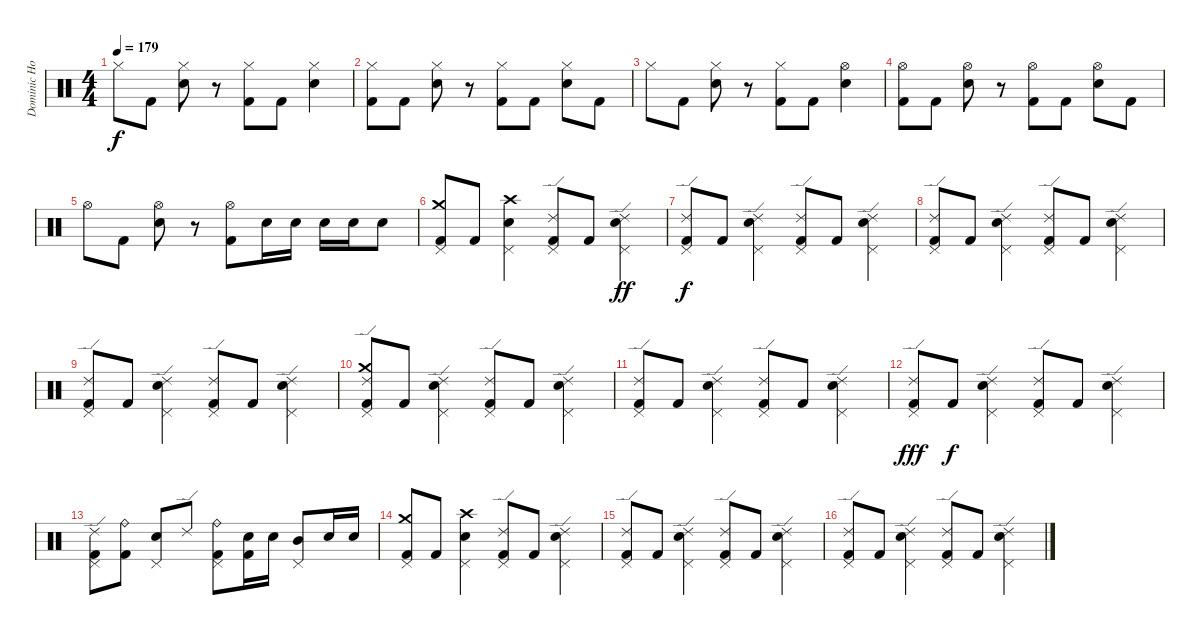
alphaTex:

\track ("Dominic Howard" "Dominic Ho") {instrument percussion}
\staff {score}
\articulation defaults
\ts (4 4)
\tempo 179
\clef neutral
\ks c "Hi-Hat (closed)".8{dy f} "Kick (hit) 2".8
("Hi-Hat (closed)" "Electric Snare (hit)").8 r.8 ("Hi-Hat (closed)" "Kick (hit) 2").8 "Kick (hit) 2".8 ("Hi-Hat (closed)" "Electric Snare (hit)").4 |
("Hi-Hat (closed)" "Kick (hit) 2").8 "Kick (hit) 2".8 ("Hi-Hat (closed)" "Electric Snare (hit)").8 r.8 ("Hi-Hat (closed)" "Kick (hit) 2").8 "Kick (hit) 2".8 ("Hi-Hat (closed)" "Electric Snare (hit)").8 "Kick (hit) 2".8 |
"Hi-Hat (closed)".8 "Kick (hit) 2".8 ("Hi-Hat (closed)" "Electric Snare (hit)").8 r.8 ("Hi-Hat (closed)" "Kick (hit) 2").8 "Kick (hit) 2".8 ("Hi-Hat (open)" "Electric Snare (hit)").4 |
("Hi-Hat (open)" "Kick (hit) 2").8 "Kick (hit) 2".8 ("Hi-Hat (open)" "Electric Snare (hit)").8 r.8 ("Hi-Hat (open)" "Kick (hit) 2").8 "Kick (hit) 2".8 ("Hi-Hat (open)" "Electric Snare (hit)").8 "Kick (hit) 2".8 |
"Hi-Hat (open)".8 "Kick (hit) 2".8 ("Hi-Hat (open)" "Electric Snare (hit)").8 r.8 ("Hi-Hat (open)" "Kick (hit) 2").8 "Electric Snare (hit)".16 "Electric Snare (hit)".16 "Electric Snare (hit)".16 "Electric Snare (hit)".16 "Electric Snare (hit)".8 |
("Crash medium (hit)" "Pedal Hi-Hat (hit)" "Kick (hit) 2").8 "Kick (hit) 2".8 ("Crash high (hit)" "Electric Snare (hit)" "Pedal Hi-Hat (hit)").4 ("Ride (edge) 2" "Pedal Hi-Hat (hit)" "Kick (hit) 2").8 "Kick (hit) 2".8 ("Ride (edge) 2" "Electric Snare (hit)" "Pedal Hi-Hat (hit)").4{dy ff} |
("Ride (edge) 2" "Pedal Hi-Hat (hit)" "Kick (hit) 2").8{dy f} "Kick (hit) 2".8 ("Ride (edge) 2" "Electric Snare (hit)" "Pedal Hi-Hat (hit)").4 ("Ride (edge) 2" "Pedal Hi-Hat (hit)" "Kick (hit) 2").8 "Kick (hit) 2".8 ("Ride (edge) 2" "Electric Snare (hit)" "Pedal Hi-Hat (hit)").4 |
("Ride (edge) 2" "Pedal Hi-Hat (hit)" "Kick (hit) 2").8 "Kick (hit) 2".8 ("Ride (edge) 2" "Electric Snare (hit)" "Pedal Hi-Hat (hit)").4 ("Ride (edge) 2" "Pedal Hi-Hat (hit)" "Kick (hit) 2").8 "Kick (hit) 2".8 ("Ride (edge) 2" "Electric Snare (hit)" "Pedal Hi-Hat (hit)").4 |
("Ride (edge) 2" "Pedal Hi-Hat (hit)" "Kick (hit) 2").8 "Kick (hit) 2".8 ("Ride (edge) 2" "Electric Snare (hit)" "Pedal Hi-Hat (hit)").4 ("Ride (edge) 2" "Pedal Hi-Hat (hit)" "Kick (hit) 2").8 "Kick (hit) 2".8 ("Ride (edge) 2" "Electric Snare (hit)" "Pedal Hi-Hat (hit)").4 |
("Crash medium (hit)" "Ride (edge) 2" "Pedal Hi-Hat (hit)" "Kick (hit) 2").8 "Kick (hit) 2".8 ("Ride (edge) 2" "Electric Snare (hit)" "Pedal Hi-Hat (hit)").4 ("Ride (edge) 2" "Pedal Hi-Hat (hit)" "Kick (hit) 2").8 "Kick (hit) 2".8 ("Ride (edge) 2" "Electric Snare (hit)" "Pedal Hi-Hat (hit)").4 |
("Ride (edge) 2" "Pedal Hi-Hat (hit)" "Kick (hit) 2").8 "Kick (hit) 2".8 ("Ride (edge) 2" "Electric Snare (hit)" "Pedal Hi-Hat (hit)").4 ("Ride (edge) 2" "Pedal Hi-Hat (hit)" "Kick (hit) 2").8 "Kick (hit) 2".8 ("Ride (edge) 2" "Electric Snare (hit)" "Pedal Hi-Hat (hit)").4 |
("Ride (edge) 2" "Pedal Hi-Hat (hit)" "Kick (hit) 2").8{dy fff} "Kick (hit) 2".8{dy f} ("Ride (edge) 2" "Electric Snare (hit)" "Pedal Hi-Hat (hit)").4 ("Ride (edge) 2" "Pedal Hi-Hat (hit)" "Kick (hit) 2").8 "Kick (hit) 2".8 ("Ride (edge) 2" "Electric Snare (hit)" "Pedal Hi-Hat (hit)").4 |
("Ride (edge) 2" "Pedal Hi-Hat (hit)" "Kick (hit) 2").8 ("Ride (bell)" "Kick (hit) 2").8 ("Electric Snare (hit)" "Pedal Hi-Hat (hit)").8 "Ride (edge) 2".8 ("Ride (bell)" "Pedal Hi-Hat (hit)" "Kick (hit) 2").8 ("Electric Snare (hit)" "Kick (hit) 2").16 "Electric Snare (hit)".16 ("Mid Tom (hit)" "Pedal Hi-Hat (hit)").8 "Electric Snare (hit)".16 "Electric Snare (hit)".16 |
("Crash medium (hit)" "Pedal Hi-Hat (hit)" "Kick (hit) 2").8 "Kick (hit) 2".8 ("Crash high (hit)" "Electric Snare (hit)" "Pedal Hi-Hat (hit)").4 ("Ride (edge) 2" "Pedal Hi-Hat (hit)" "Kick (hit) 2").8 "Kick (hit) 2".8 ("Ride (edge) 2" "Electric Snare (hit)" "Pedal Hi-Hat (hit)").4 |
("Ride (edge) 2" "Pedal Hi-Hat (hit)" "Kick (hit) 2").8 "Kick (hit) 2".8 ("Ride (edge) 2" "Electric Snare (hit)" "Pedal Hi-Hat (hit)").4 ("Ride (edge) 2" "Pedal Hi-Hat (hit)" "Kick (hit) 2").8 "Kick (hit) 2".8 ("Ride (edge) 2" "Electric Snare (hit)" "Pedal Hi-Hat (hit)").4 |
("Ride (edge) 2" "Pedal Hi-Hat (hit)" "Kick (hit) 2").8 "Kick (hit) 2".8 ("Ride (edge) 2" "Electric Snare (hit)" "Pedal Hi-Hat (hit)").4 ("Ride (edge) 2" "Pedal Hi-Hat (hit)" "Kick (hit) 2").8 "Kick (hit) 2".8 ("Ride (edge) 2" "Electric Snare (hit)" "Pedal Hi-Hat (hit)").4
